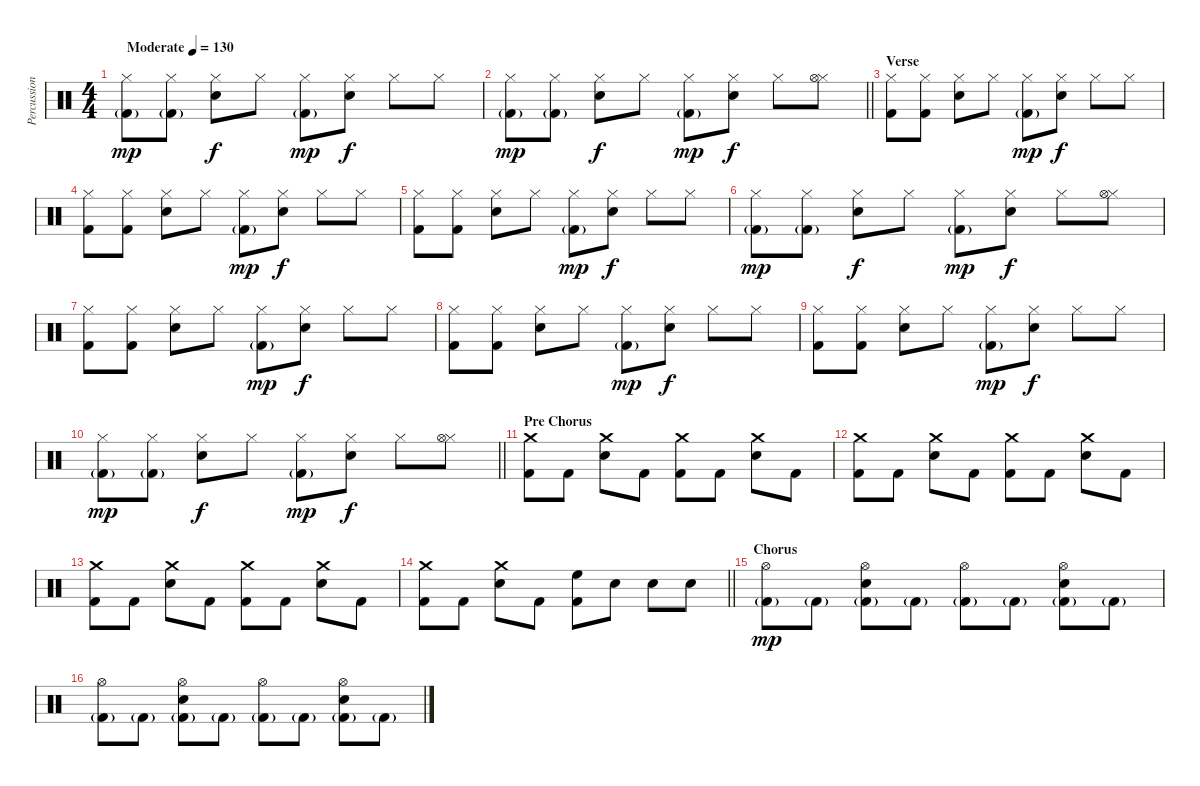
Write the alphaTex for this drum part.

\track ("Percussions" "Percussion") {instrument percussion}
\staff {score}
\articulation defaults
\ts (4 4)
\tempo (130 "Moderate")
\clef neutral
\ks c
("Hi-Hat (closed)" "Kick (hit) 2"{g}).8{dy mp} ("Hi-Hat (closed)" "Kick (hit) 2"{g}).8 ("Hi-Hat (closed)" "Electric Snare (hit)").8{dy f} "Hi-Hat (closed)".8 ("Hi-Hat (closed)" "Kick (hit) 2"{g}).8{dy mp} ("Hi-Hat (closed)" "Electric Snare (hit)").8{dy f} "Hi-Hat (closed)".8 "Hi-Hat (closed)".8 |
\barLineRight lightlight
("Hi-Hat (closed)" "Kick (hit) 2"{g}).8{dy mp} ("Hi-Hat (closed)" "Kick (hit) 2"{g}).8 ("Hi-Hat (closed)" "Electric Snare (hit)").8{dy f} "Hi-Hat (closed)".8 ("Hi-Hat (closed)" "Kick (hit) 2"{g}).8{dy mp} ("Hi-Hat (closed)" "Electric Snare (hit)").8{dy f} "Hi-Hat (closed)".8 ("Hi-Hat (closed)" "Hi-Hat (open)").8 |
\section ("" "Verse")
("Hi-Hat (closed)" "Kick (hit) 2").8 ("Hi-Hat (closed)" "Kick (hit) 2").8 ("Hi-Hat (closed)" "Electric Snare (hit)").8 "Hi-Hat (closed)".8 ("Hi-Hat (closed)" "Kick (hit) 2"{g}).8{dy mp} ("Hi-Hat (closed)" "Electric Snare (hit)").8{dy f} "Hi-Hat (closed)".8 "Hi-Hat (closed)".8 |
("Hi-Hat (closed)" "Kick (hit) 2").8 ("Hi-Hat (closed)" "Kick (hit) 2").8 ("Hi-Hat (closed)" "Electric Snare (hit)").8 "Hi-Hat (closed)".8 ("Hi-Hat (closed)" "Kick (hit) 2"{g}).8{dy mp} ("Hi-Hat (closed)" "Electric Snare (hit)").8{dy f} "Hi-Hat (closed)".8 "Hi-Hat (closed)".8 |
("Hi-Hat (closed)" "Kick (hit) 2").8 ("Hi-Hat (closed)" "Kick (hit) 2").8 ("Hi-Hat (closed)" "Electric Snare (hit)").8 "Hi-Hat (closed)".8 ("Hi-Hat (closed)" "Kick (hit) 2"{g}).8{dy mp} ("Hi-Hat (closed)" "Electric Snare (hit)").8{dy f} "Hi-Hat (closed)".8 "Hi-Hat (closed)".8 |
("Hi-Hat (closed)" "Kick (hit) 2"{g}).8{dy mp} ("Hi-Hat (closed)" "Kick (hit) 2"{g}).8 ("Hi-Hat (closed)" "Electric Snare (hit)").8{dy f} "Hi-Hat (closed)".8 ("Hi-Hat (closed)" "Kick (hit) 2"{g}).8{dy mp} ("Hi-Hat (closed)" "Electric Snare (hit)").8{dy f} "Hi-Hat (closed)".8 ("Hi-Hat (closed)" "Hi-Hat (open)").8 |
("Hi-Hat (closed)" "Kick (hit) 2").8 ("Hi-Hat (closed)" "Kick (hit) 2").8 ("Hi-Hat (closed)" "Electric Snare (hit)").8 "Hi-Hat (closed)".8 ("Hi-Hat (closed)" "Kick (hit) 2"{g}).8{dy mp} ("Hi-Hat (closed)" "Electric Snare (hit)").8{dy f} "Hi-Hat (closed)".8 "Hi-Hat (closed)".8 |
("Hi-Hat (closed)" "Kick (hit) 2").8 ("Hi-Hat (closed)" "Kick (hit) 2").8 ("Hi-Hat (closed)" "Electric Snare (hit)").8 "Hi-Hat (closed)".8 ("Hi-Hat (closed)" "Kick (hit) 2"{g}).8{dy mp} ("Hi-Hat (closed)" "Electric Snare (hit)").8{dy f} "Hi-Hat (closed)".8 "Hi-Hat (closed)".8 |
("Hi-Hat (closed)" "Kick (hit) 2").8 ("Hi-Hat (closed)" "Kick (hit) 2").8 ("Hi-Hat (closed)" "Electric Snare (hit)").8 "Hi-Hat (closed)".8 ("Hi-Hat (closed)" "Kick (hit) 2"{g}).8{dy mp} ("Hi-Hat (closed)" "Electric Snare (hit)").8{dy f} "Hi-Hat (closed)".8 "Hi-Hat (closed)".8 |
\barLineRight lightlight
("Hi-Hat (closed)" "Kick (hit) 2"{g}).8{dy mp} ("Hi-Hat (closed)" "Kick (hit) 2"{g}).8 ("Hi-Hat (closed)" "Electric Snare (hit)").8{dy f} "Hi-Hat (closed)".8 ("Hi-Hat (closed)" "Kick (hit) 2"{g}).8{dy mp} ("Hi-Hat (closed)" "Electric Snare (hit)").8{dy f} "Hi-Hat (closed)".8 ("Hi-Hat (closed)" "Hi-Hat (open)").8 |
\section ("" "Pre Chorus")
("Crash medium (hit)" "Kick (hit) 2").8 "Kick (hit) 2".8 ("Crash medium (hit)" "Electric Snare (hit)").8 "Kick (hit) 2".8 ("Crash medium (hit)" "Kick (hit) 2").8 "Kick (hit) 2".8 ("Crash medium (hit)" "Electric Snare (hit)").8 "Kick (hit) 2".8 |
("Crash medium (hit)" "Kick (hit) 2").8 "Kick (hit) 2".8 ("Crash medium (hit)" "Electric Snare (hit)").8 "Kick (hit) 2".8 ("Crash medium (hit)" "Kick (hit) 2").8 "Kick (hit) 2".8 ("Crash medium (hit)" "Electric Snare (hit)").8 "Kick (hit) 2".8 |
("Crash medium (hit)" "Kick (hit) 2").8 "Kick (hit) 2".8 ("Crash medium (hit)" "Electric Snare (hit)").8 "Kick (hit) 2".8 ("Crash medium (hit)" "Kick (hit) 2").8 "Kick (hit) 2".8 ("Crash medium (hit)" "Electric Snare (hit)").8 "Kick (hit) 2".8 |
\barLineRight lightlight
("Crash medium (hit)" "Kick (hit) 2").8 "Kick (hit) 2".8 ("Crash medium (hit)" "Electric Snare (hit)").8 "Kick (hit) 2".8 ("High Floor Tom (hit)" "Kick (hit) 2").8 "Electric Snare (hit)".8 "Electric Snare (hit)".8 "Electric Snare (hit)".8 |
\section ("" "Chorus")
("Hi-Hat (open)" "Kick (hit) 2"{g}).8{dy mp} "Kick (hit) 2"{g}.8 ("Hi-Hat (open)" "Electric Snare (hit)" "Kick (hit) 2"{g}).8 "Kick (hit) 2"{g}.8 ("Hi-Hat (open)" "Kick (hit) 2"{g}).8 "Kick (hit) 2"{g}.8 ("Hi-Hat (open)" "Electric Snare (hit)" "Kick (hit) 2"{g}).8 "Kick (hit) 2"{g}.8 |
("Hi-Hat (open)" "Kick (hit) 2"{g}).8 "Kick (hit) 2"{g}.8 ("Hi-Hat (open)" "Electric Snare (hit)" "Kick (hit) 2"{g}).8 "Kick (hit) 2"{g}.8 ("Hi-Hat (open)" "Kick (hit) 2"{g}).8 "Kick (hit) 2"{g}.8 ("Hi-Hat (open)" "Electric Snare (hit)" "Kick (hit) 2"{g}).8 "Kick (hit) 2"{g}.8
